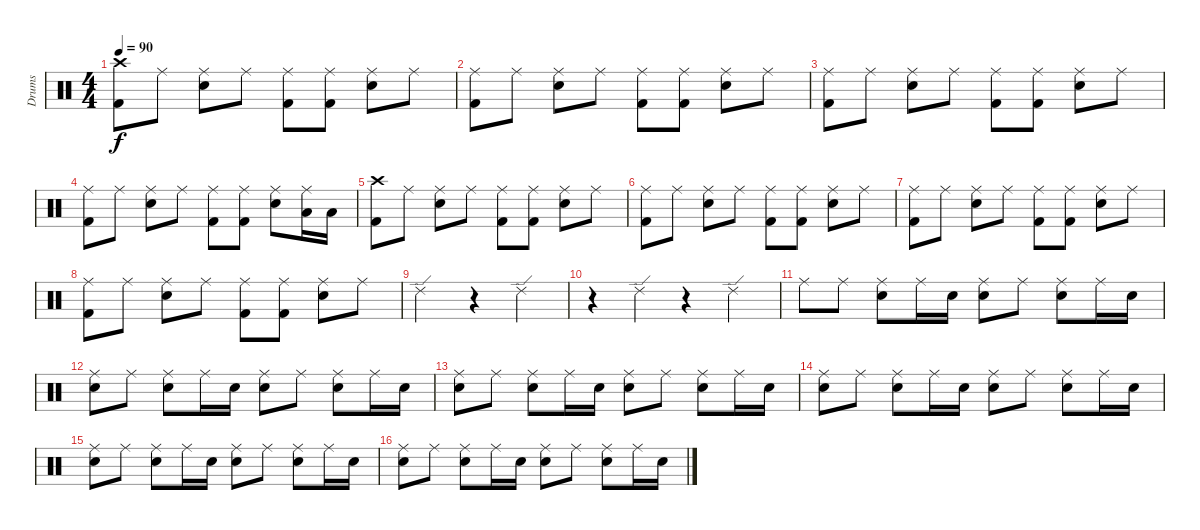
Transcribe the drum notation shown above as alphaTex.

\track ("Drums" "Drums") {instrument percussion}
\staff {score}
\articulation defaults
\ts (4 4)
\tempo 90
\clef neutral
\ks c
("Crash high (hit)" "Kick (hit) 2").8{dy f} "Ride (middle)".8 ("Ride (middle)" "Snare (hit) 2").8 "Ride (middle)".8 ("Ride (middle)" "Kick (hit) 2").8 ("Ride (middle)" "Kick (hit) 2").8 ("Ride (middle)" "Snare (hit) 2").8 "Ride (middle)".8 |
("Ride (middle)" "Kick (hit) 2").8 "Ride (middle)".8 ("Ride (middle)" "Snare (hit) 2").8 "Ride (middle)".8 ("Ride (middle)" "Kick (hit) 2").8 ("Ride (middle)" "Kick (hit) 2").8 ("Ride (middle)" "Snare (hit) 2").8 "Ride (middle)".8 |
("Ride (middle)" "Kick (hit) 2").8 "Ride (middle)".8 ("Ride (middle)" "Snare (hit) 2").8 "Ride (middle)".8 ("Ride (middle)" "Kick (hit) 2").8 ("Ride (middle)" "Kick (hit) 2").8 ("Ride (middle)" "Snare (hit) 2").8 "Ride (middle)".8 |
("Ride (middle)" "Kick (hit) 2").8 "Ride (middle)".8 ("Ride (middle)" "Snare (hit) 2").8 "Ride (middle)".8 ("Ride (middle)" "Kick (hit) 2").8 ("Ride (middle)" "Kick (hit) 2").8 ("Ride (middle)" "Snare (hit) 2").8 ("Ride (middle)" "Low Tom (hit)").16 "Low Tom (hit)".16 |
("Crash high (hit)" "Kick (hit) 2").8 "Ride (middle)".8 ("Ride (middle)" "Snare (hit) 2").8 "Ride (middle)".8 ("Ride (middle)" "Kick (hit) 2").8 ("Ride (middle)" "Kick (hit) 2").8 ("Ride (middle)" "Snare (hit) 2").8 "Ride (middle)".8 |
("Ride (middle)" "Kick (hit) 2").8 "Ride (middle)".8 ("Ride (middle)" "Snare (hit) 2").8 "Ride (middle)".8 ("Ride (middle)" "Kick (hit) 2").8 ("Ride (middle)" "Kick (hit) 2").8 ("Ride (middle)" "Snare (hit) 2").8 "Ride (middle)".8 |
("Ride (middle)" "Kick (hit) 2").8 "Ride (middle)".8 ("Ride (middle)" "Snare (hit) 2").8 "Ride (middle)".8 ("Ride (middle)" "Kick (hit) 2").8 ("Ride (middle)" "Kick (hit) 2").8 ("Ride (middle)" "Snare (hit) 2").8 "Ride (middle)".8 |
("Ride (middle)" "Kick (hit) 2").8 "Ride (middle)".8 ("Ride (middle)" "Snare (hit) 2").8 "Ride (middle)".8 ("Ride (middle)" "Kick (hit) 2").8 ("Ride (middle)" "Kick (hit) 2").8 ("Ride (middle)" "Snare (hit) 2").8 "Ride (middle)".8 |
"Ride (edge) 2".2 r.4 "Ride (edge) 2".4 |
r.4 "Ride (edge) 2".4 r.4 "Ride (edge) 2".4 |
"Ride (middle)".8 "Ride (middle)".8 ("Ride (middle)" "Snare (hit) 2").8 "Ride (middle)".16 "Snare (hit) 2".16 ("Ride (middle)" "Snare (hit) 2").8 "Ride (middle)".8 ("Ride (middle)" "Snare (hit) 2").8 "Ride (middle)".16 "Snare (hit) 2".16 |
("Ride (middle)" "Snare (hit) 2").8 "Ride (middle)".8 ("Ride (middle)" "Snare (hit) 2").8 "Ride (middle)".16 "Snare (hit) 2".16 ("Ride (middle)" "Snare (hit) 2").8 "Ride (middle)".8 ("Ride (middle)" "Snare (hit) 2").8 "Ride (middle)".16 "Snare (hit) 2".16 |
("Ride (middle)" "Snare (hit) 2").8 "Ride (middle)".8 ("Ride (middle)" "Snare (hit) 2").8 "Ride (middle)".16 "Snare (hit) 2".16 ("Ride (middle)" "Snare (hit) 2").8 "Ride (middle)".8 ("Ride (middle)" "Snare (hit) 2").8 "Ride (middle)".16 "Snare (hit) 2".16 |
("Ride (middle)" "Snare (hit) 2").8 "Ride (middle)".8 ("Ride (middle)" "Snare (hit) 2").8 "Ride (middle)".16 "Snare (hit) 2".16 ("Ride (middle)" "Snare (hit) 2").8 "Ride (middle)".8 ("Ride (middle)" "Snare (hit) 2").8 "Ride (middle)".16 "Snare (hit) 2".16 |
("Ride (middle)" "Snare (hit) 2").8 "Ride (middle)".8 ("Ride (middle)" "Snare (hit) 2").8 "Ride (middle)".16 "Snare (hit) 2".16 ("Ride (middle)" "Snare (hit) 2").8 "Ride (middle)".8 ("Ride (middle)" "Snare (hit) 2").8 "Ride (middle)".16 "Snare (hit) 2".16 |
("Ride (middle)" "Snare (hit) 2").8 "Ride (middle)".8 ("Ride (middle)" "Snare (hit) 2").8 "Ride (middle)".16 "Snare (hit) 2".16 ("Ride (middle)" "Snare (hit) 2").8 "Ride (middle)".8 ("Ride (middle)" "Snare (hit) 2").8 "Ride (middle)".16 "Snare (hit) 2".16
